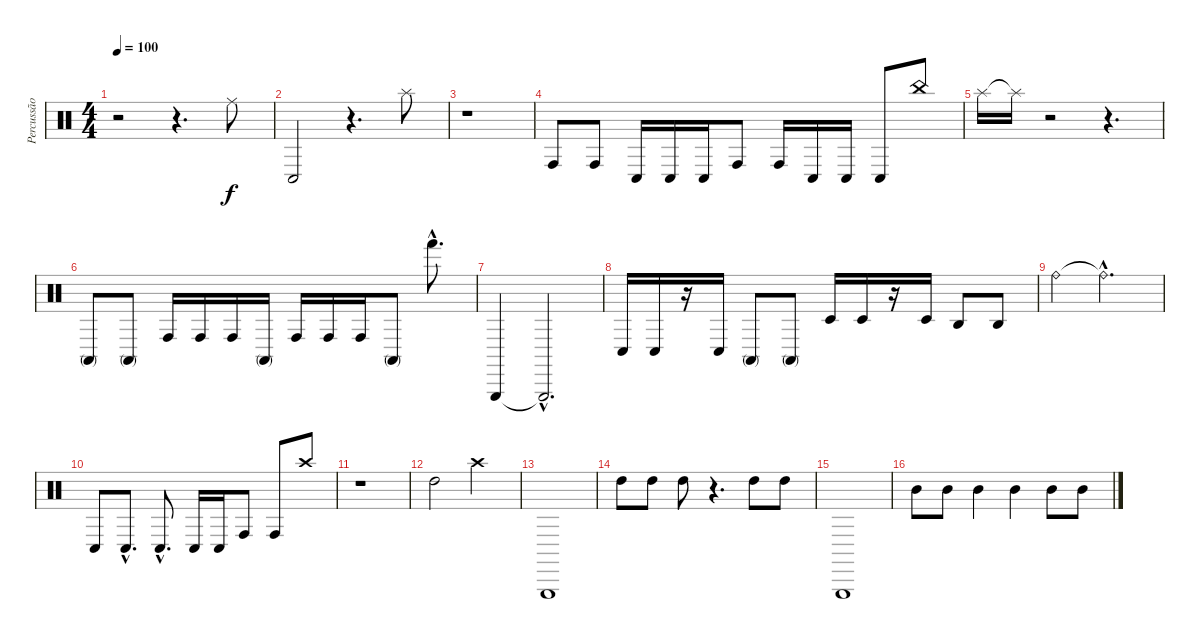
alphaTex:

\track ("Percussão" "Percussão") {instrument percussion}
\staff {score}
\articulation defaults
\ts (4 4)
\tempo 100
\clef neutral
\ks c
r.2{dy f} r.4{d} "Ride (middle)".8 |
"Conga low (hit)".2 r.4{d} "Splash (hit)".8 |
r.1 |
"Conga high (hit)".8 "Conga high (hit)".8 "Conga low (hit)".16 "Conga low (hit)".16 "Conga low (hit)".16 "Conga high (hit)".8 "Conga high (hit)".16 "Conga low (hit)".16 "Conga low (hit)".16 "Conga low (hit)".8 "China (hit)".8 |
"Splash (hit)".16 "Splash (hit)"{t}.16 r.2 r.4{d} |
"Conga high (mute)".8 "Conga high (mute)".8 "Conga high (hit)".16 "Conga high (hit)".16 "Conga high (hit)".16 "Conga high (mute)".16 "Conga high (hit)".16 "Conga high (hit)".16 "Conga high (hit)".16 "Conga high (mute)".8 "Hand (hit)"{hac}.8{d} |
"Triangle (hit)".4 "Triangle (hit)"{hac t}.2{d} |
"Conga low (hit)".16 "Conga low (hit)".16 r.16 "Conga low (hit)".16 "Conga high (mute)".8 "Conga high (mute)".8 "Timbale low (hit)".16 "Timbale low (hit)".16 r.16 "Timbale low (hit)".16 "Agogo high (hit)".8 "Agogo high (hit)".8 |
"Ride (bell)".4 "Ride (bell)"{hac t}.2{d} |
"Conga low (hit)".8 "Conga low (hit)"{hac}.8{d} "Conga low (hit)"{hac}.8{d} "Conga low (hit)".16 "Conga low (hit)".16 "Conga high (hit)".8 "Conga high (hit)".8 "Crash high (hit)".8 |
r.1 |
"High Tom (hit)".2 "Crash high (hit)".2 |
"Triangle (hit)".1 |
"High Tom (hit)".8 "High Tom (hit)".8 "High Tom (hit)".8 r.4{d} "High Tom (hit)".8 "High Tom (hit)".8 |
"Triangle (hit)".1 |
"Mid Tom (hit)".8 "Mid Tom (hit)".8 "Mid Tom (hit)".4 "Mid Tom (hit)".4 "Mid Tom (hit)".8 "Mid Tom (hit)".8
